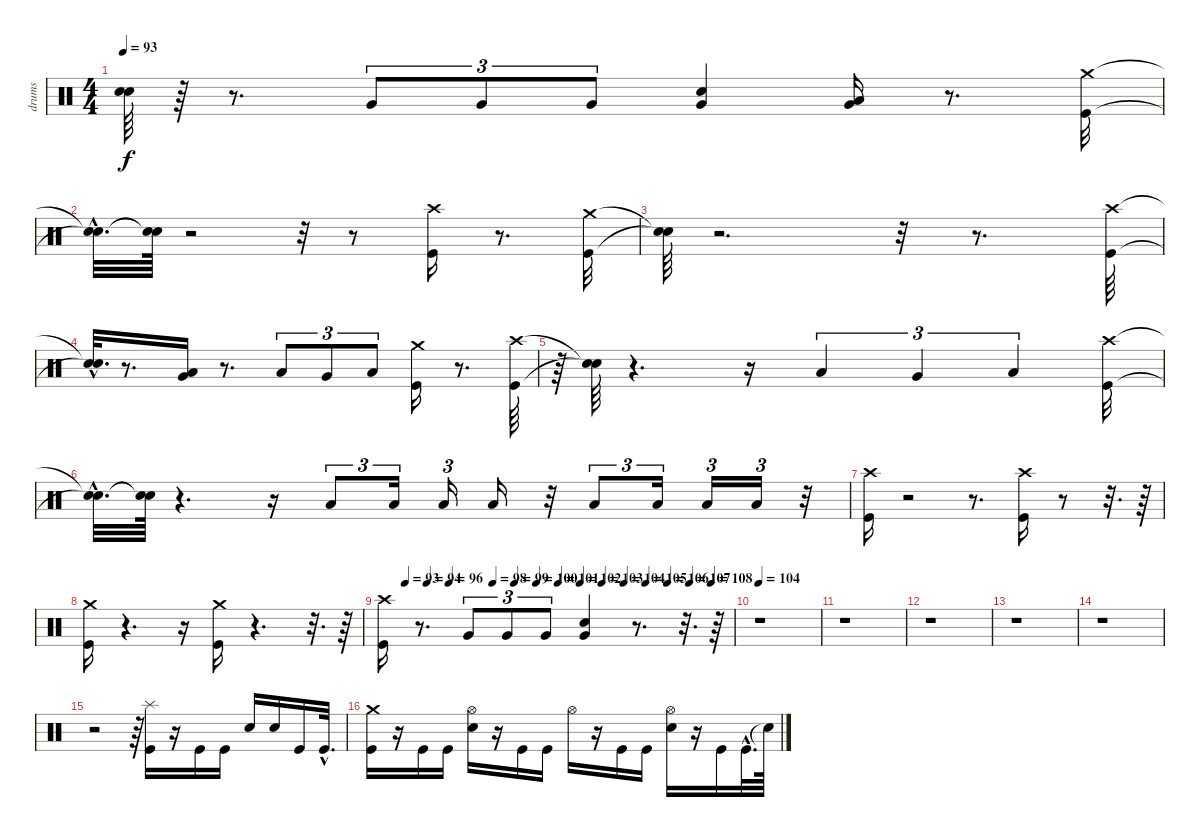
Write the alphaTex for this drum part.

\track ("drums" "drums") {instrument percussion}
\staff {score}
\articulation defaults
\ts (4 4)
\tempo 93
\clef neutral
\ks c
("Snare (hit)"{t} "Snare (hit)"{t}).64{dy f} r.64 r.8{d} "Very Low Tom (hit)".8{tu (3 2)} "Very Low Tom (hit)".8{tu (3 2)} "Very Low Tom (hit)".8{tu (3 2)} ("Snare (hit) 2" "Very Low Tom (hit)").4 ("Low Floor Tom (hit)" "Very Low Tom (hit)").16 r.8{d} ("Crash medium (hit)" "Kick (hit)").32 |
("Snare (hit)"{hac t} "Snare (hit)"{hac t}).32{d} ("Snare (hit)"{t} "Snare (hit)"{t}).64 r.2 r.32 r.8 ("Kick (hit)" "Crash high (hit)").16 r.8{d} ("Kick (hit)" "Crash medium (hit)").32 |
("Snare (hit)"{t} "Snare (hit)"{t}).64 r.2{d} r.32 r.8{d} ("Crash high (hit)" "Kick (hit)").64 |
("Snare (hit)"{hac t} "Snare (hit)"{hac t}).32{d} r.8{d} ("Low Tom (hit)" "Very Low Tom (hit)").16 r.8{d} "Low Tom (hit)".8{tu (3 2)} "Very Low Tom (hit)".8{tu (3 2)} "Low Floor Tom (hit)".8{tu (3 2)} ("Crash medium (hit)" "Kick (hit)").16 r.8{d} ("Crash high (hit)" "Kick (hit)").64 |
r.64 ("Snare (hit)"{t} "Snare (hit)"{t}).64 r.4{d} r.16 "Low Tom (hit)".4{tu (3 2)} "Very Low Tom (hit)".4{tu (3 2)} "Low Floor Tom (hit)".4{tu (3 2)} ("Crash high (hit)" "Kick (hit)").32 |
("Snare (hit)"{hac t} "Snare (hit)"{hac t}).32{d} ("Snare (hit)"{t} "Snare (hit)"{t}).64 r.4{d} r.16 "Low Tom (hit)".8{tu (3 2)} "Low Tom (hit)".16{tu (3 2)} "Low Tom (hit)".16{tu (3 2)} "Low Tom (hit)".16 r.32 "Low Tom (hit)".8{tu (3 2)} "Low Tom (hit)".16{tu (3 2)} "Low Tom (hit)".16{tu (3 2)} "Low Tom (hit)".16{tu (3 2)} r.32 |
("Crash high (hit)" "Kick (hit)").16 r.2 r.8{d} ("Crash high (hit)" "Kick (hit)").16 r.8 r.32{d} r.64 |
("Crash medium (hit)" "Kick (hit)").16 r.4{d} r.16 ("Crash medium (hit)" "Kick (hit)").16 r.4{d} r.32{d} r.64 |
\tempo (93 0.0625)
\tempo (94 0.125)
\tempo (96 0.1875)
\tempo (98 0.3125)
\tempo (99 0.375)
\tempo (100 0.4375)
\tempo (101 0.5)
\tempo (102 0.5625)
\tempo (103 0.625)
\tempo (104 0.6875)
\tempo (105 0.75)
\tempo (106 0.8125)
\tempo (107 0.875)
\tempo (108 0.9375)
("Crash high (hit)" "Kick (hit)").16 r.8{d} "Very Low Tom (hit)".8{tu (3 2)} "Very Low Tom (hit)".8{tu (3 2)} "Very Low Tom (hit)".8{tu (3 2)} ("Snare (hit) 2" "Very Low Tom (hit)").4 r.8{d} r.32{d} r.64 |
\tempo 104
r.1 |
r.1 |
r.1 |
r.1 |
r.1 |
r.2 r.64 ("Splash (hit)" "Kick (hit)").16 r.16 "Kick (hit)".16 "Kick (hit)".16 "Electric Snare (hit)".16 "Electric Snare (hit)".16 "Kick (hit)".16 "Kick (hit)"{hac}.32{d} |
("Crash medium (hit)" "Kick (hit)").16 r.16 "Kick (hit)".16 "Kick (hit)".16 ("Hi-Hat (open)" "Electric Snare (hit)").16 r.16 "Kick (hit)".16 "Kick (hit)".16 "Hi-Hat (open)".16 r.16 "Kick (hit)".16 "Kick (hit)".16 ("Hi-Hat (open)" "Electric Snare (hit)").16 r.16 "Kick (hit)".16 "Kick (hit)"{hac}.32{d} "Snare (hit)"{t}.64
